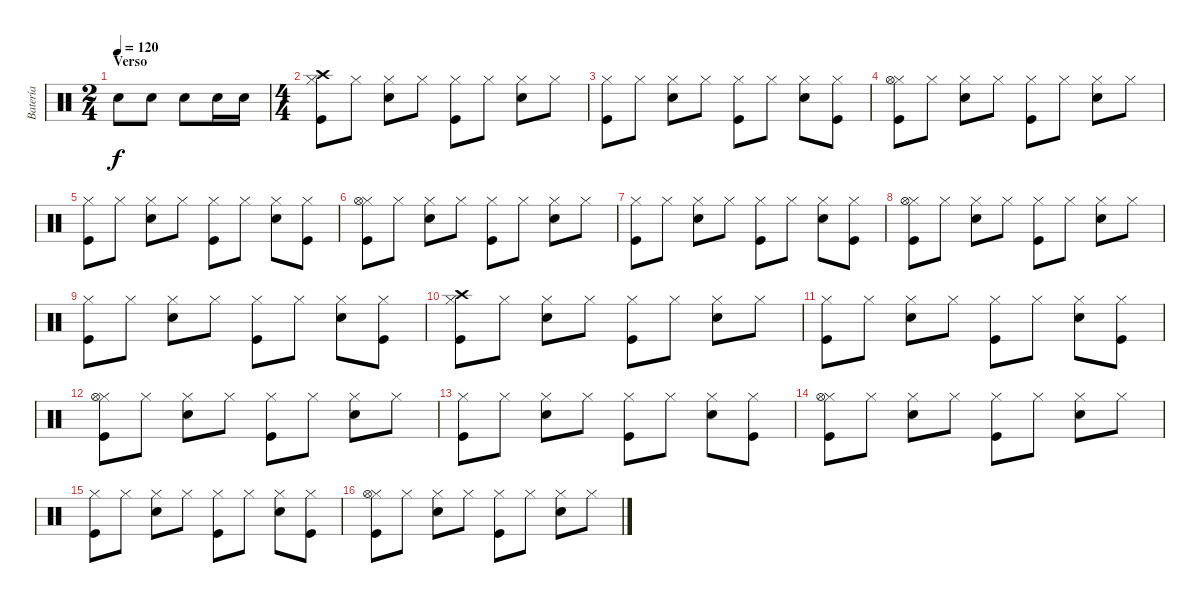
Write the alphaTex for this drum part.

\track ("Batería" "Batería") {instrument percussion}
\staff {score}
\articulation defaults
\ts (2 4)
\section ("" "Verso")
\tempo 120
\clef neutral
\ks c "Electric Snare (hit)".8{dy f} "Electric Snare (hit)".8 "Electric Snare (hit)".8 "Electric Snare (hit)".16 "Electric Snare (hit)".16
|
\ts (4 4)
("Kick (hit)" "Hi-Hat (closed)" "Crash high (hit)").8 "Hi-Hat (closed)".8 ("Electric Snare (hit)" "Hi-Hat (closed)").8 "Hi-Hat (closed)".8 ("Kick (hit)" "Hi-Hat (closed)").8 "Hi-Hat (closed)".8 ("Electric Snare (hit)" "Hi-Hat (closed)").8 "Hi-Hat (closed)".8 |
("Kick (hit)" "Hi-Hat (closed)").8 "Hi-Hat (closed)".8 ("Electric Snare (hit)" "Hi-Hat (closed)").8 "Hi-Hat (closed)".8 ("Kick (hit)" "Hi-Hat (closed)").8 "Hi-Hat (closed)".8 ("Electric Snare (hit)" "Hi-Hat (closed)").8 ("Kick (hit)" "Hi-Hat (closed)").8 |
("Kick (hit)" "Hi-Hat (closed)" "Hi-Hat (open)").8 "Hi-Hat (closed)".8 ("Electric Snare (hit)" "Hi-Hat (closed)").8 "Hi-Hat (closed)".8 ("Kick (hit)" "Hi-Hat (closed)").8 "Hi-Hat (closed)".8 ("Electric Snare (hit)" "Hi-Hat (closed)").8 "Hi-Hat (closed)".8 |
("Kick (hit)" "Hi-Hat (closed)").8 "Hi-Hat (closed)".8 ("Electric Snare (hit)" "Hi-Hat (closed)").8 "Hi-Hat (closed)".8 ("Kick (hit)" "Hi-Hat (closed)").8 "Hi-Hat (closed)".8 ("Electric Snare (hit)" "Hi-Hat (closed)").8 ("Kick (hit)" "Hi-Hat (closed)").8 |
("Kick (hit)" "Hi-Hat (closed)" "Hi-Hat (open)").8 "Hi-Hat (closed)".8 ("Electric Snare (hit)" "Hi-Hat (closed)").8 "Hi-Hat (closed)".8 ("Kick (hit)" "Hi-Hat (closed)").8 "Hi-Hat (closed)".8 ("Electric Snare (hit)" "Hi-Hat (closed)").8 "Hi-Hat (closed)".8 |
("Kick (hit)" "Hi-Hat (closed)").8 "Hi-Hat (closed)".8 ("Electric Snare (hit)" "Hi-Hat (closed)").8 "Hi-Hat (closed)".8 ("Kick (hit)" "Hi-Hat (closed)").8 "Hi-Hat (closed)".8 ("Electric Snare (hit)" "Hi-Hat (closed)").8 ("Kick (hit)" "Hi-Hat (closed)").8 |
("Kick (hit)" "Hi-Hat (closed)" "Hi-Hat (open)").8 "Hi-Hat (closed)".8 ("Electric Snare (hit)" "Hi-Hat (closed)").8 "Hi-Hat (closed)".8 ("Kick (hit)" "Hi-Hat (closed)").8 "Hi-Hat (closed)".8 ("Electric Snare (hit)" "Hi-Hat (closed)").8 "Hi-Hat (closed)".8 |
("Kick (hit)" "Hi-Hat (closed)").8 "Hi-Hat (closed)".8 ("Electric Snare (hit)" "Hi-Hat (closed)").8 "Hi-Hat (closed)".8 ("Kick (hit)" "Hi-Hat (closed)").8 "Hi-Hat (closed)".8 ("Electric Snare (hit)" "Hi-Hat (closed)").8 ("Kick (hit)" "Hi-Hat (closed)").8 |
("Kick (hit)" "Hi-Hat (closed)" "Crash high (hit)").8 "Hi-Hat (closed)".8 ("Electric Snare (hit)" "Hi-Hat (closed)").8 "Hi-Hat (closed)".8 ("Kick (hit)" "Hi-Hat (closed)").8 "Hi-Hat (closed)".8 ("Electric Snare (hit)" "Hi-Hat (closed)").8 "Hi-Hat (closed)".8 |
("Kick (hit)" "Hi-Hat (closed)").8 "Hi-Hat (closed)".8 ("Electric Snare (hit)" "Hi-Hat (closed)").8 "Hi-Hat (closed)".8 ("Kick (hit)" "Hi-Hat (closed)").8 "Hi-Hat (closed)".8 ("Electric Snare (hit)" "Hi-Hat (closed)").8 ("Kick (hit)" "Hi-Hat (closed)").8 |
("Kick (hit)" "Hi-Hat (closed)" "Hi-Hat (open)").8 "Hi-Hat (closed)".8 ("Electric Snare (hit)" "Hi-Hat (closed)").8 "Hi-Hat (closed)".8 ("Kick (hit)" "Hi-Hat (closed)").8 "Hi-Hat (closed)".8 ("Electric Snare (hit)" "Hi-Hat (closed)").8 "Hi-Hat (closed)".8 |
("Kick (hit)" "Hi-Hat (closed)").8 "Hi-Hat (closed)".8 ("Electric Snare (hit)" "Hi-Hat (closed)").8 "Hi-Hat (closed)".8 ("Kick (hit)" "Hi-Hat (closed)").8 "Hi-Hat (closed)".8 ("Electric Snare (hit)" "Hi-Hat (closed)").8 ("Kick (hit)" "Hi-Hat (closed)").8 |
("Kick (hit)" "Hi-Hat (closed)" "Hi-Hat (open)").8 "Hi-Hat (closed)".8 ("Electric Snare (hit)" "Hi-Hat (closed)").8 "Hi-Hat (closed)".8 ("Kick (hit)" "Hi-Hat (closed)").8 "Hi-Hat (closed)".8 ("Electric Snare (hit)" "Hi-Hat (closed)").8 "Hi-Hat (closed)".8 |
("Kick (hit)" "Hi-Hat (closed)").8 "Hi-Hat (closed)".8 ("Electric Snare (hit)" "Hi-Hat (closed)").8 "Hi-Hat (closed)".8 ("Kick (hit)" "Hi-Hat (closed)").8 "Hi-Hat (closed)".8 ("Electric Snare (hit)" "Hi-Hat (closed)").8 ("Kick (hit)" "Hi-Hat (closed)").8 |
("Kick (hit)" "Hi-Hat (closed)" "Hi-Hat (open)").8 "Hi-Hat (closed)".8 ("Electric Snare (hit)" "Hi-Hat (closed)").8 "Hi-Hat (closed)".8 ("Kick (hit)" "Hi-Hat (closed)").8 "Hi-Hat (closed)".8 ("Electric Snare (hit)" "Hi-Hat (closed)").8 "Hi-Hat (closed)".8
